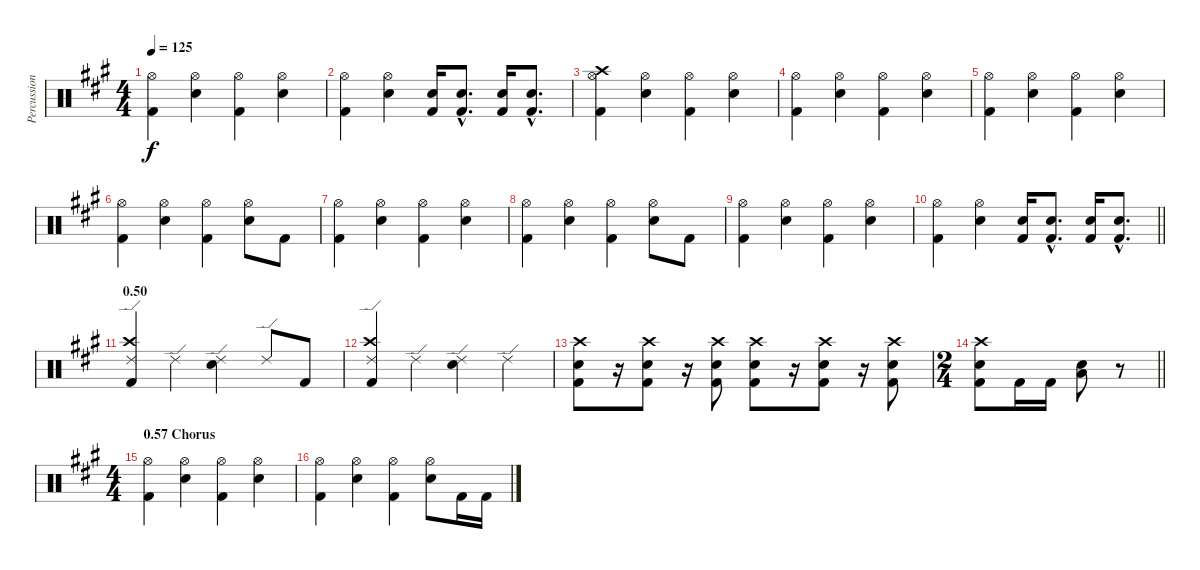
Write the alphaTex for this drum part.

\track ("Percussion" "Percussion") {instrument percussion}
\staff {score}
\articulation defaults
\ts (4 4)
\tempo 125
\clef neutral
\ks f#minor
("Hi-Hat (open)" "Kick (hit) 2").4{dy f} ("Hi-Hat (open)" "Electric Snare (hit)").4 ("Hi-Hat (open)" "Kick (hit) 2").4 ("Hi-Hat (open)" "Electric Snare (hit)").4 |
("Hi-Hat (open)" "Kick (hit) 2").4 ("Hi-Hat (open)" "Electric Snare (hit)").4 ("Electric Snare (hit)" "Kick (hit) 2").16 ("Electric Snare (hit)"{hac} "Kick (hit) 2"{hac}).8{d} ("Electric Snare (hit)" "Kick (hit) 2").16 ("Electric Snare (hit)"{hac} "Kick (hit) 2"{hac}).8{d} |
("Crash high (hit)" "Hi-Hat (open)" "Kick (hit) 2").4 ("Hi-Hat (open)" "Electric Snare (hit)").4 ("Hi-Hat (open)" "Kick (hit) 2").4 ("Hi-Hat (open)" "Electric Snare (hit)").4 |
("Hi-Hat (open)" "Kick (hit) 2").4 ("Hi-Hat (open)" "Electric Snare (hit)").4 ("Hi-Hat (open)" "Kick (hit) 2").4 ("Hi-Hat (open)" "Electric Snare (hit)").4 |
("Hi-Hat (open)" "Kick (hit) 2").4 ("Hi-Hat (open)" "Electric Snare (hit)").4 ("Hi-Hat (open)" "Kick (hit) 2").4 ("Hi-Hat (open)" "Electric Snare (hit)").4 |
("Hi-Hat (open)" "Kick (hit) 2").4 ("Hi-Hat (open)" "Electric Snare (hit)").4 ("Hi-Hat (open)" "Kick (hit) 2").4 ("Hi-Hat (open)" "Electric Snare (hit)").8 "Kick (hit) 2".8 |
("Hi-Hat (open)" "Kick (hit) 2").4 ("Hi-Hat (open)" "Electric Snare (hit)").4 ("Hi-Hat (open)" "Kick (hit) 2").4 ("Hi-Hat (open)" "Electric Snare (hit)").4 |
("Hi-Hat (open)" "Kick (hit) 2").4 ("Hi-Hat (open)" "Electric Snare (hit)").4 ("Hi-Hat (open)" "Kick (hit) 2").4 ("Hi-Hat (open)" "Electric Snare (hit)").8 "Kick (hit) 2".8 |
("Hi-Hat (open)" "Kick (hit) 2").4 ("Hi-Hat (open)" "Electric Snare (hit)").4 ("Hi-Hat (open)" "Kick (hit) 2").4 ("Hi-Hat (open)" "Electric Snare (hit)").4 |
\barLineRight lightlight
("Hi-Hat (open)" "Kick (hit) 2").4 ("Hi-Hat (open)" "Electric Snare (hit)").4 ("Electric Snare (hit)" "Kick (hit) 2").16 ("Electric Snare (hit)"{hac} "Kick (hit) 2"{hac}).8{d} ("Electric Snare (hit)" "Kick (hit) 2").16 ("Electric Snare (hit)"{hac} "Kick (hit) 2"{hac}).8{d} |
\section ("" "0.50")
("Crash high (hit)" "Ride (edge) 2" "Kick (hit) 2").4 "Ride (edge) 2".4 ("Ride (edge) 2" "Electric Snare (hit)").4 "Ride (edge) 2".8 "Kick (hit) 2".8 |
("Crash high (hit)" "Ride (edge) 2" "Kick (hit) 2").4 "Ride (edge) 2".4 ("Ride (edge) 2" "Electric Snare (hit)").4 "Ride (edge) 2".4 |
("Crash high (hit)" "Electric Snare (hit)" "Kick (hit) 2").8 r.16 ("Crash high (hit)" "Electric Snare (hit)" "Kick (hit) 2").8 r.16 ("Crash high (hit)" "Electric Snare (hit)" "Kick (hit) 2").8 ("Crash high (hit)" "Electric Snare (hit)" "Kick (hit) 2").8 r.16 ("Crash high (hit)" "Electric Snare (hit)" "Kick (hit) 2").8 r.16 ("Crash high (hit)" "Electric Snare (hit)" "Kick (hit) 2").8 |
\ts (2 4)
\barLineRight lightlight
("Crash high (hit)" "Electric Snare (hit)" "Kick (hit) 2").8 "Kick (hit) 2".16 "Kick (hit) 2".16 ("Electric Snare (hit)" "Low Floor Tom (hit)").8 r.8 |
\ts (4 4)
\section ("" "0.57 Chorus")
("Hi-Hat (open)" "Kick (hit) 2").4 ("Hi-Hat (open)" "Electric Snare (hit)").4 ("Hi-Hat (open)" "Kick (hit) 2").4 ("Hi-Hat (open)" "Electric Snare (hit)").4 |
("Hi-Hat (open)" "Kick (hit) 2").4 ("Hi-Hat (open)" "Electric Snare (hit)").4 ("Hi-Hat (open)" "Kick (hit) 2").4 ("Hi-Hat (open)" "Electric Snare (hit)").8 "Kick (hit) 2".16 "Kick (hit) 2".16
